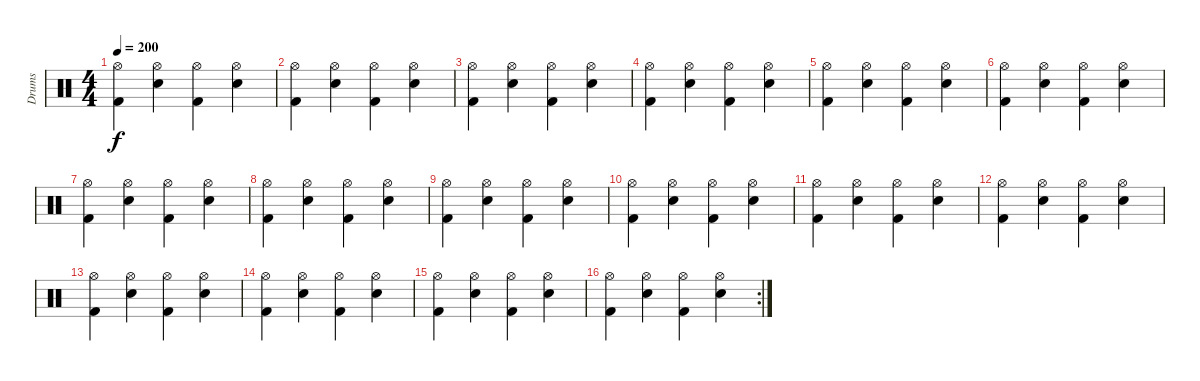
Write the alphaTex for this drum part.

\track ("Drums" "Drums") {instrument percussion}
\staff {score}
\articulation defaults
\ts (4 4)
\tempo 200
\clef neutral
\ks c
("Hi-Hat (open)" "Kick (hit) 2").4{dy f} ("Hi-Hat (open)" "Snare (hit) 2").4 ("Hi-Hat (open)" "Kick (hit) 2").4 ("Hi-Hat (open)" "Snare (hit) 2").4 |
("Hi-Hat (open)" "Kick (hit) 2").4 ("Hi-Hat (open)" "Snare (hit) 2").4 ("Hi-Hat (open)" "Kick (hit) 2").4 ("Hi-Hat (open)" "Snare (hit) 2").4 |
("Hi-Hat (open)" "Kick (hit) 2").4 ("Hi-Hat (open)" "Snare (hit) 2").4 ("Hi-Hat (open)" "Kick (hit) 2").4 ("Hi-Hat (open)" "Snare (hit) 2").4 |
("Hi-Hat (open)" "Kick (hit) 2").4 ("Hi-Hat (open)" "Snare (hit) 2").4 ("Hi-Hat (open)" "Kick (hit) 2").4 ("Hi-Hat (open)" "Snare (hit) 2").4 |
("Hi-Hat (open)" "Kick (hit) 2").4 ("Hi-Hat (open)" "Snare (hit) 2").4 ("Hi-Hat (open)" "Kick (hit) 2").4 ("Hi-Hat (open)" "Snare (hit) 2").4 |
("Hi-Hat (open)" "Kick (hit) 2").4 ("Hi-Hat (open)" "Snare (hit) 2").4 ("Hi-Hat (open)" "Kick (hit) 2").4 ("Hi-Hat (open)" "Snare (hit) 2").4 |
("Hi-Hat (open)" "Kick (hit) 2").4 ("Hi-Hat (open)" "Snare (hit) 2").4 ("Hi-Hat (open)" "Kick (hit) 2").4 ("Hi-Hat (open)" "Snare (hit) 2").4 |
("Hi-Hat (open)" "Kick (hit) 2").4 ("Hi-Hat (open)" "Snare (hit) 2").4 ("Hi-Hat (open)" "Kick (hit) 2").4 ("Hi-Hat (open)" "Snare (hit) 2").4 |
("Hi-Hat (open)" "Kick (hit) 2").4 ("Hi-Hat (open)" "Snare (hit) 2").4 ("Hi-Hat (open)" "Kick (hit) 2").4 ("Hi-Hat (open)" "Snare (hit) 2").4 |
("Hi-Hat (open)" "Kick (hit) 2").4 ("Hi-Hat (open)" "Snare (hit) 2").4 ("Hi-Hat (open)" "Kick (hit) 2").4 ("Hi-Hat (open)" "Snare (hit) 2").4 |
("Hi-Hat (open)" "Kick (hit) 2").4 ("Hi-Hat (open)" "Snare (hit) 2").4 ("Hi-Hat (open)" "Kick (hit) 2").4 ("Hi-Hat (open)" "Snare (hit) 2").4 |
("Hi-Hat (open)" "Kick (hit) 2").4 ("Hi-Hat (open)" "Snare (hit) 2").4 ("Hi-Hat (open)" "Kick (hit) 2").4 ("Hi-Hat (open)" "Snare (hit) 2").4 |
("Hi-Hat (open)" "Kick (hit) 2").4 ("Hi-Hat (open)" "Snare (hit) 2").4 ("Hi-Hat (open)" "Kick (hit) 2").4 ("Hi-Hat (open)" "Snare (hit) 2").4 |
("Hi-Hat (open)" "Kick (hit) 2").4 ("Hi-Hat (open)" "Snare (hit) 2").4 ("Hi-Hat (open)" "Kick (hit) 2").4 ("Hi-Hat (open)" "Snare (hit) 2").4 |
("Hi-Hat (open)" "Kick (hit) 2").4 ("Hi-Hat (open)" "Snare (hit) 2").4 ("Hi-Hat (open)" "Kick (hit) 2").4 ("Hi-Hat (open)" "Snare (hit) 2").4 |
\rc 2
("Hi-Hat (open)" "Kick (hit) 2").4 ("Hi-Hat (open)" "Snare (hit) 2").4 ("Hi-Hat (open)" "Kick (hit) 2").4 ("Hi-Hat (open)" "Snare (hit) 2").4
